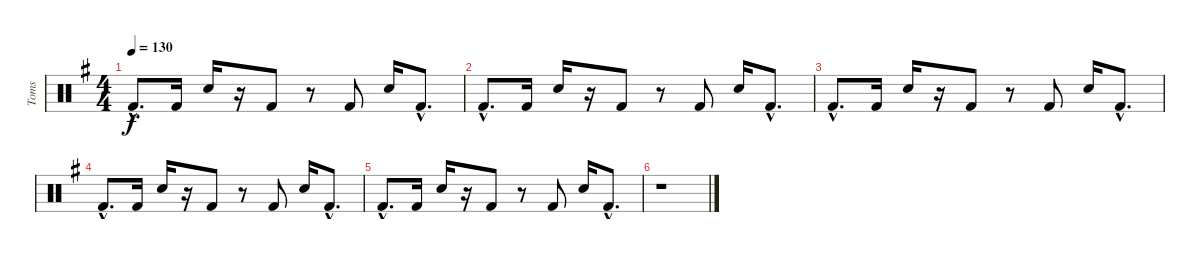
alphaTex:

\track ("Toms" "Toms") {instrument percussion}
\staff {score}
\articulation defaults
\ts (4 4)
\tempo 130
\clef neutral
\ks g "Kick (hit) 2"{hac}.8{d dy f} "Kick (hit) 2".16 "Snare (hit) 2".16
r.16 "Kick (hit) 2".8 r.8 "Kick (hit) 2".8 "Snare (hit) 2".16 "Kick (hit) 2"{hac}.8{d} |
"Kick (hit) 2"{hac}.8{d} "Kick (hit) 2".16 "Snare (hit) 2".16 r.16 "Kick (hit) 2".8 r.8 "Kick (hit) 2".8 "Snare (hit) 2".16 "Kick (hit) 2"{hac}.8{d} |
"Kick (hit) 2"{hac}.8{d} "Kick (hit) 2".16 "Snare (hit) 2".16 r.16 "Kick (hit) 2".8 r.8 "Kick (hit) 2".8 "Snare (hit) 2".16 "Kick (hit) 2"{hac}.8{d} |
"Kick (hit) 2"{hac}.8{d} "Kick (hit) 2".16 "Snare (hit) 2".16 r.16 "Kick (hit) 2".8 r.8 "Kick (hit) 2".8 "Snare (hit) 2".16 "Kick (hit) 2"{hac}.8{d} |
"Kick (hit) 2"{hac}.8{d} "Kick (hit) 2".16 "Snare (hit) 2".16 r.16 "Kick (hit) 2".8 r.8 "Kick (hit) 2".8 "Snare (hit) 2".16 "Kick (hit) 2"{hac}.8{d} |
r.1
